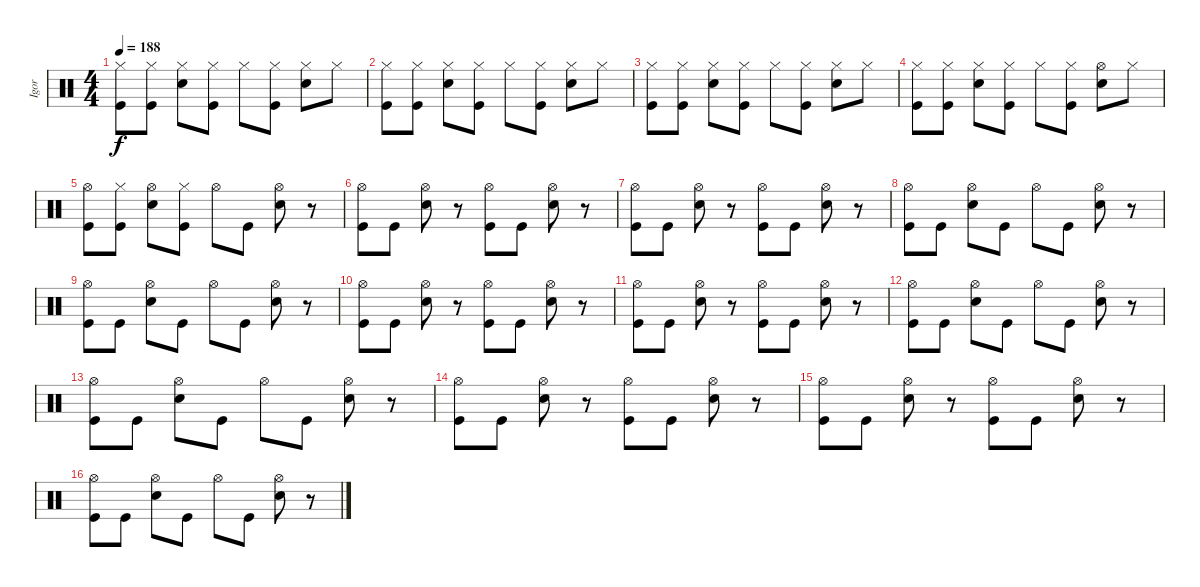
\track ("Igor" "Igor") {instrument percussion}
\staff {score}
\articulation defaults
\ts (4 4)
\tempo 188
\clef neutral
\ks c
("Hi-Hat (closed)" "Kick (hit)").8{dy f} ("Hi-Hat (closed)" "Kick (hit)").8 ("Hi-Hat (closed)" "Snare (hit) 2").8 ("Hi-Hat (closed)" "Kick (hit)").8 "Hi-Hat (closed)".8 ("Hi-Hat (closed)" "Kick (hit)").8 ("Hi-Hat (closed)" "Snare (hit) 2").8 "Hi-Hat (closed)".8 |
("Hi-Hat (closed)" "Kick (hit)").8 ("Hi-Hat (closed)" "Kick (hit)").8 ("Hi-Hat (closed)" "Snare (hit) 2").8 ("Hi-Hat (closed)" "Kick (hit)").8 "Hi-Hat (closed)".8 ("Hi-Hat (closed)" "Kick (hit)").8 ("Hi-Hat (closed)" "Snare (hit) 2").8 "Hi-Hat (closed)".8 |
("Hi-Hat (closed)" "Kick (hit)").8 ("Hi-Hat (closed)" "Kick (hit)").8 ("Hi-Hat (closed)" "Snare (hit) 2").8 ("Hi-Hat (closed)" "Kick (hit)").8 "Hi-Hat (closed)".8 ("Hi-Hat (closed)" "Kick (hit)").8 ("Hi-Hat (closed)" "Snare (hit) 2").8 "Hi-Hat (closed)".8 |
("Hi-Hat (closed)" "Kick (hit)").8 ("Hi-Hat (closed)" "Kick (hit)").8 ("Hi-Hat (closed)" "Snare (hit) 2").8 ("Hi-Hat (closed)" "Kick (hit)").8 "Hi-Hat (closed)".8 ("Hi-Hat (closed)" "Kick (hit)").8 ("Hi-Hat (open)" "Snare (hit) 2").8 "Hi-Hat (closed)".8 |
("Hi-Hat (open)" "Kick (hit)").8 ("Hi-Hat (closed)" "Kick (hit)").8 ("Hi-Hat (open)" "Snare (hit) 2").8 ("Hi-Hat (closed)" "Kick (hit)").8 "Hi-Hat (open)".8 "Kick (hit)".8 ("Hi-Hat (open)" "Snare (hit) 2").8 r.8 |
("Hi-Hat (open)" "Kick (hit)").8 "Kick (hit)".8 ("Hi-Hat (open)" "Snare (hit) 2").8 r.8 ("Hi-Hat (open)" "Kick (hit)").8 "Kick (hit)".8 ("Hi-Hat (open)" "Snare (hit) 2").8 r.8 |
("Hi-Hat (open)" "Kick (hit)").8 "Kick (hit)".8 ("Hi-Hat (open)" "Snare (hit) 2").8 r.8 ("Hi-Hat (open)" "Kick (hit)").8 "Kick (hit)".8 ("Hi-Hat (open)" "Snare (hit) 2").8 r.8 |
("Hi-Hat (open)" "Kick (hit)").8 "Kick (hit)".8 ("Hi-Hat (open)" "Snare (hit) 2").8 "Kick (hit)".8 "Hi-Hat (open)".8 "Kick (hit)".8 ("Hi-Hat (open)" "Snare (hit) 2").8 r.8 |
("Hi-Hat (open)" "Kick (hit)").8 "Kick (hit)".8 ("Hi-Hat (open)" "Snare (hit) 2").8 "Kick (hit)".8 "Hi-Hat (open)".8 "Kick (hit)".8 ("Hi-Hat (open)" "Snare (hit) 2").8 r.8 |
("Hi-Hat (open)" "Kick (hit)").8 "Kick (hit)".8 ("Hi-Hat (open)" "Snare (hit) 2").8 r.8 ("Hi-Hat (open)" "Kick (hit)").8 "Kick (hit)".8 ("Hi-Hat (open)" "Snare (hit) 2").8 r.8 |
("Hi-Hat (open)" "Kick (hit)").8 "Kick (hit)".8 ("Hi-Hat (open)" "Snare (hit) 2").8 r.8 ("Hi-Hat (open)" "Kick (hit)").8 "Kick (hit)".8 ("Hi-Hat (open)" "Snare (hit) 2").8 r.8 |
("Hi-Hat (open)" "Kick (hit)").8 "Kick (hit)".8 ("Hi-Hat (open)" "Snare (hit) 2").8 "Kick (hit)".8 "Hi-Hat (open)".8 "Kick (hit)".8 ("Hi-Hat (open)" "Snare (hit) 2").8 r.8 |
("Hi-Hat (open)" "Kick (hit)").8 "Kick (hit)".8 ("Hi-Hat (open)" "Snare (hit) 2").8 "Kick (hit)".8 "Hi-Hat (open)".8 "Kick (hit)".8 ("Hi-Hat (open)" "Snare (hit) 2").8 r.8 |
("Hi-Hat (open)" "Kick (hit)").8 "Kick (hit)".8 ("Hi-Hat (open)" "Snare (hit) 2").8 r.8 ("Hi-Hat (open)" "Kick (hit)").8 "Kick (hit)".8 ("Hi-Hat (open)" "Snare (hit) 2").8 r.8 |
("Hi-Hat (open)" "Kick (hit)").8 "Kick (hit)".8 ("Hi-Hat (open)" "Snare (hit) 2").8 r.8 ("Hi-Hat (open)" "Kick (hit)").8 "Kick (hit)".8 ("Hi-Hat (open)" "Snare (hit) 2").8 r.8 |
("Hi-Hat (open)" "Kick (hit)").8 "Kick (hit)".8 ("Hi-Hat (open)" "Snare (hit) 2").8 "Kick (hit)".8 "Hi-Hat (open)".8 "Kick (hit)".8 ("Hi-Hat (open)" "Snare (hit) 2").8 r.8
